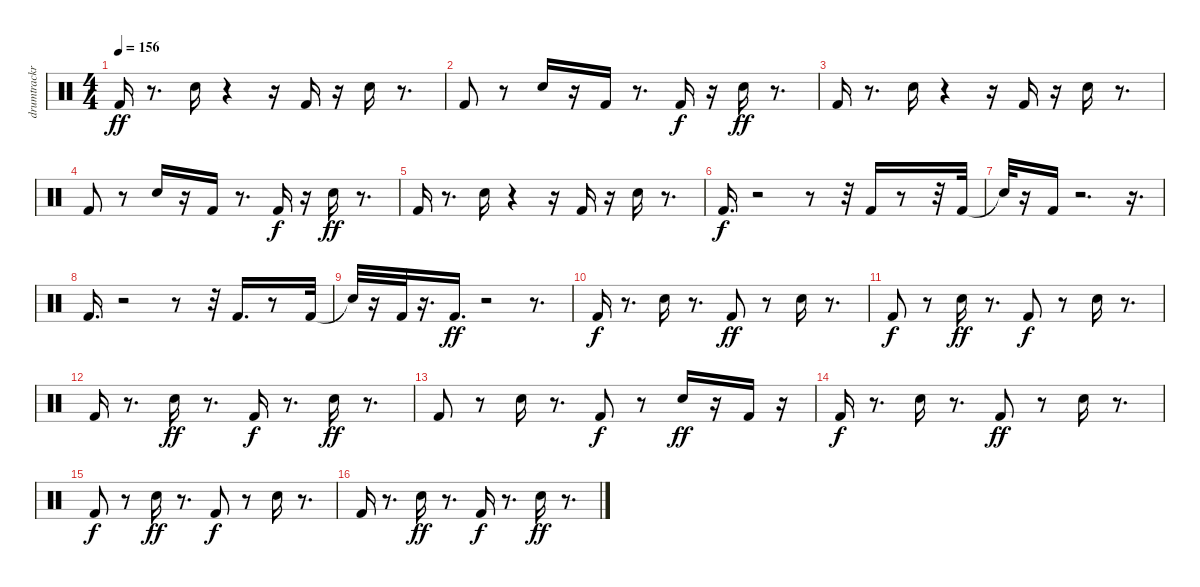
\track ("drumtrackr " "drumtrackr") {instrument percussion}
\staff {score}
\articulation defaults
\ts (4 4)
\tempo 156
\clef neutral
\ks c "Kick (hit) 2".16{dy ff}
r.8{d} "Snare (hit) 2".16 r.4 r.16 "Kick (hit) 2".16 r.16 "Snare (hit) 2".16 r.8{d} |
"Kick (hit) 2".8 r.8 "Snare (hit) 2".16 r.16 "Kick (hit) 2".16 r.8{d} "Kick (hit) 2".16{dy f} r.16 "Snare (hit) 2".16{dy ff} r.8{d} |
"Kick (hit) 2".16 r.8{d} "Snare (hit) 2".16 r.4 r.16 "Kick (hit) 2".16 r.16 "Snare (hit) 2".16 r.8{d} |
"Kick (hit) 2".8 r.8 "Snare (hit) 2".16 r.16 "Kick (hit) 2".16 r.8{d} "Kick (hit) 2".16{dy f} r.16 "Snare (hit) 2".16{dy ff} r.8{d} |
"Kick (hit) 2".16 r.8{d} "Snare (hit) 2".16 r.4 r.16 "Kick (hit) 2".16 r.16 "Snare (hit) 2".16 r.8{d} |
"Kick (hit) 2".16{d dy f} r.2 r.8 r.32 "Kick (hit) 2".16 r.8 r.32 "Kick (hit) 2".32 |
"Snare (hit)"{t}.32 r.16 "Kick (hit) 2".16 r.2{d} r.16{d} |
"Kick (hit) 2".16{d} r.2 r.8 r.32 "Kick (hit) 2".16{d} r.8 "Kick (hit) 2".32 |
"Snare (hit)"{t}.32 r.16 "Kick (hit) 2".32 r.16{d} "Kick (hit) 2".16{d dy ff} r.2 r.8{d} |
"Kick (hit) 2".16{dy f} r.8{d} "Snare (hit) 2".16 r.8{d} "Kick (hit) 2".8{dy ff} r.8 "Snare (hit) 2".16 r.8{d} |
"Kick (hit) 2".8{dy f} r.8 "Snare (hit) 2".16{dy ff} r.8{d} "Kick (hit) 2".8{dy f} r.8 "Snare (hit) 2".16 r.8{d} |
"Kick (hit) 2".16 r.8{d} "Snare (hit) 2".16{dy ff} r.8{d} "Kick (hit) 2".16{dy f} r.8{d} "Snare (hit) 2".16{dy ff} r.8{d} |
"Kick (hit) 2".8 r.8 "Snare (hit) 2".16 r.8{d} "Kick (hit) 2".8{dy f} r.8 "Snare (hit) 2".16{dy ff} r.16 "Kick (hit) 2".16 r.16 |
"Kick (hit) 2".16{dy f} r.8{d} "Snare (hit) 2".16 r.8{d} "Kick (hit) 2".8{dy ff} r.8 "Snare (hit) 2".16 r.8{d} |
"Kick (hit) 2".8{dy f} r.8 "Snare (hit) 2".16{dy ff} r.8{d} "Kick (hit) 2".8{dy f} r.8 "Snare (hit) 2".16 r.8{d} |
"Kick (hit) 2".16 r.8{d} "Snare (hit) 2".16{dy ff} r.8{d} "Kick (hit) 2".16{dy f} r.8{d} "Snare (hit) 2".16{dy ff} r.8{d}
